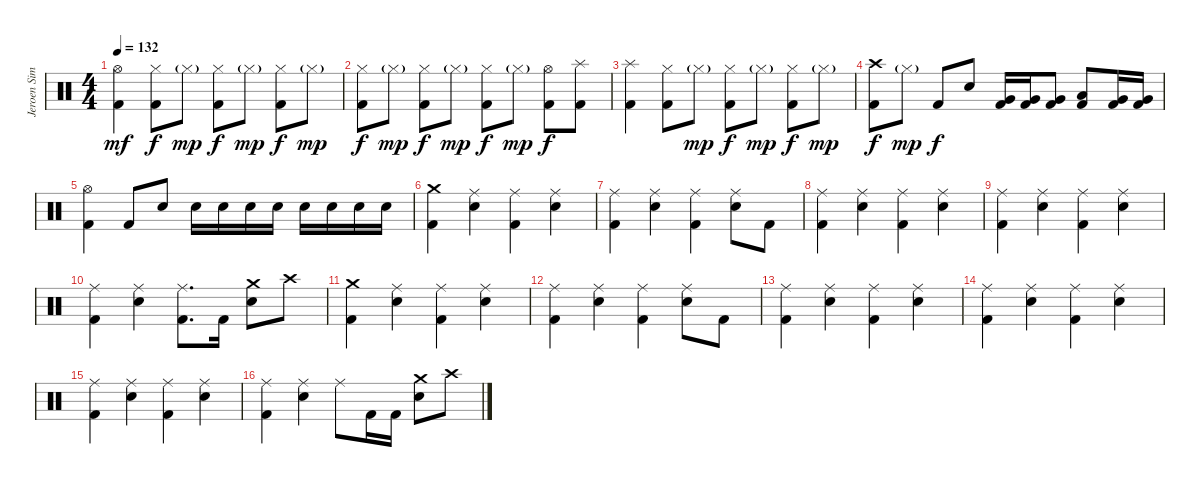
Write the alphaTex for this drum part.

\track ("Jeroen Simons" "Jeroen Sim") {instrument percussion}
\staff {score}
\articulation defaults
\ts (4 4)
\tempo 132
\clef neutral
\ks c
("Hi-Hat (open)" "Kick (hit) 2").4{dy mf} ("Hi-Hat (closed)" "Kick (hit) 2").8{dy f} "Hi-Hat (closed)"{g}.8{dy mp} ("Hi-Hat (closed)" "Kick (hit) 2").8{dy f} "Hi-Hat (closed)"{g}.8{dy mp} ("Hi-Hat (closed)" "Kick (hit) 2").8{dy f} "Hi-Hat (closed)"{g}.8{dy mp} |
("Hi-Hat (closed)" "Kick (hit) 2").8{dy f} "Hi-Hat (closed)"{g}.8{dy mp} ("Hi-Hat (closed)" "Kick (hit) 2").8{dy f} "Hi-Hat (closed)"{g}.8{dy mp} ("Hi-Hat (closed)" "Kick (hit) 2").8{dy f} "Hi-Hat (closed)"{g}.8{dy mp} ("Hi-Hat (open)" "Kick (hit) 2").8{dy f} ("Splash (hit)" "Kick (hit) 2").8 |
("Splash (hit)" "Kick (hit) 2").4 ("Hi-Hat (closed)" "Kick (hit) 2").8 "Hi-Hat (closed)"{g}.8{dy mp} ("Hi-Hat (closed)" "Kick (hit) 2").8{dy f} "Hi-Hat (closed)"{g}.8{dy mp} ("Hi-Hat (closed)" "Kick (hit) 2").8{dy f} "Hi-Hat (closed)"{g}.8{dy mp} |
("Crash high (hit)" "Kick (hit) 2").8{dy f} "Hi-Hat (closed)"{g}.8{dy mp} "Kick (hit) 2".8{dy f} "Electric Snare (hit)".8 ("Very Low Tom (hit)" "Kick (hit) 2").16 ("Very Low Tom (hit)" "Kick (hit) 2").16 ("Very Low Tom (hit)" "Kick (hit) 2").8 ("Low Tom (hit)" "Kick (hit) 2").8 ("Very Low Tom (hit)" "Kick (hit) 2").16 ("Very Low Tom (hit)" "Kick (hit) 2").16 |
("Hi-Hat (open)" "Kick (hit) 2").4 "Kick (hit) 2".8 "Electric Snare (hit)".8 "Electric Snare (hit)".16 "Electric Snare (hit)".16 "Electric Snare (hit)".16 "Electric Snare (hit)".16 "Electric Snare (hit)".16 "Electric Snare (hit)".16 "Electric Snare (hit)".16 "Electric Snare (hit)".16 |
("Crash medium (hit)" "Kick (hit) 2").4 ("Ride (middle)" "Electric Snare (hit)").4 ("Ride (middle)" "Kick (hit) 2").4 ("Ride (middle)" "Electric Snare (hit)").4 |
("Ride (middle)" "Kick (hit) 2").4 ("Ride (middle)" "Electric Snare (hit)").4 ("Ride (middle)" "Kick (hit) 2").4 ("Ride (middle)" "Electric Snare (hit)").8 "Kick (hit) 2".8 |
("Ride (middle)" "Kick (hit) 2").4 ("Ride (middle)" "Electric Snare (hit)").4 ("Ride (middle)" "Kick (hit) 2").4 ("Ride (middle)" "Electric Snare (hit)").4 |
("Ride (middle)" "Kick (hit) 2").4 ("Ride (middle)" "Electric Snare (hit)").4 ("Ride (middle)" "Kick (hit) 2").4 ("Ride (middle)" "Electric Snare (hit)").4 |
("Ride (middle)" "Kick (hit) 2").4 ("Ride (middle)" "Electric Snare (hit)").4 ("Ride (middle)" "Kick (hit) 2").8{d} "Kick (hit) 2".16 ("Crash medium (hit)" "Electric Snare (hit)").8 "Crash high (hit)".8 |
("Crash medium (hit)" "Kick (hit) 2").4 ("Ride (middle)" "Electric Snare (hit)").4 ("Ride (middle)" "Kick (hit) 2").4 ("Ride (middle)" "Electric Snare (hit)").4 |
("Ride (middle)" "Kick (hit) 2").4 ("Ride (middle)" "Electric Snare (hit)").4 ("Ride (middle)" "Kick (hit) 2").4 ("Ride (middle)" "Electric Snare (hit)").8 "Kick (hit) 2".8 |
("Ride (middle)" "Kick (hit) 2").4 ("Ride (middle)" "Electric Snare (hit)").4 ("Ride (middle)" "Kick (hit) 2").4 ("Ride (middle)" "Electric Snare (hit)").4 |
("Ride (middle)" "Kick (hit) 2").4 ("Ride (middle)" "Electric Snare (hit)").4 ("Ride (middle)" "Kick (hit) 2").4 ("Ride (middle)" "Electric Snare (hit)").4 |
("Ride (middle)" "Kick (hit) 2").4 ("Ride (middle)" "Electric Snare (hit)").4 ("Ride (middle)" "Kick (hit) 2").4 ("Ride (middle)" "Electric Snare (hit)").4 |
("Ride (middle)" "Kick (hit) 2").4 ("Ride (middle)" "Electric Snare (hit)").4 "Ride (middle)".8 "Kick (hit) 2".16 "Kick (hit) 2".16 ("Crash medium (hit)" "Electric Snare (hit)").8 "Crash high (hit)".8
